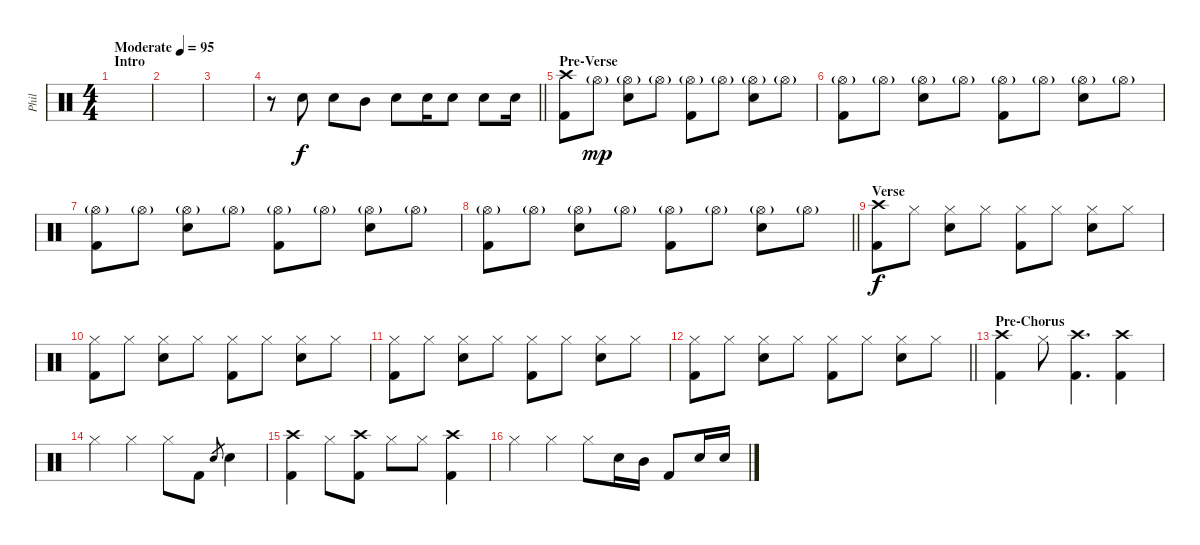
\track ("Phil" "Phil") {instrument percussion}
\staff {score}
\articulation defaults
\ts (4 4)
\section ("" "Intro")
\tempo (95 "Moderate")
\clef neutral
\ks c
|
|
|
\barLineRight lightlight
r.8 "Snare (hit) 2".8 "Snare (hit) 2".8 "Mid Tom (hit)".8 "Snare (hit) 2".8 "Snare (hit) 2".16 "Snare (hit) 2".8 "Snare (hit) 2".8 "Snare (hit) 2".16 |
\section ("" "Pre-Verse")
("Crash high (hit)" "Kick (hit) 2").8 "Hi-Hat (open)"{g}.8{dy mp} ("Hi-Hat (open)"{g} "Snare (hit) 2").8 "Hi-Hat (open)"{g}.8 ("Hi-Hat (open)"{g} "Kick (hit) 2").8 "Hi-Hat (open)"{g}.8 ("Hi-Hat (open)"{g} "Snare (hit) 2").8 "Hi-Hat (open)"{g}.8 |
("Hi-Hat (open)"{g} "Kick (hit) 2").8 "Hi-Hat (open)"{g}.8 ("Hi-Hat (open)"{g} "Snare (hit) 2").8 "Hi-Hat (open)"{g}.8 ("Hi-Hat (open)"{g} "Kick (hit) 2").8 "Hi-Hat (open)"{g}.8 ("Hi-Hat (open)"{g} "Snare (hit) 2").8 "Hi-Hat (open)"{g}.8 |
("Hi-Hat (open)"{g} "Kick (hit) 2").8 "Hi-Hat (open)"{g}.8 ("Hi-Hat (open)"{g} "Snare (hit) 2").8 "Hi-Hat (open)"{g}.8 ("Hi-Hat (open)"{g} "Kick (hit) 2").8 "Hi-Hat (open)"{g}.8 ("Hi-Hat (open)"{g} "Snare (hit) 2").8 "Hi-Hat (open)"{g}.8 |
\barLineRight lightlight
("Hi-Hat (open)"{g} "Kick (hit) 2").8 "Hi-Hat (open)"{g}.8 ("Hi-Hat (open)"{g} "Snare (hit) 2").8 "Hi-Hat (open)"{g}.8 ("Hi-Hat (open)"{g} "Kick (hit) 2").8 "Hi-Hat (open)"{g}.8 ("Hi-Hat (open)"{g} "Snare (hit) 2").8 "Hi-Hat (open)"{g}.8 |
\section ("" "Verse")
("Crash high (hit)" "Kick (hit) 2").8{dy f} "Hi-Hat (closed)".8 ("Hi-Hat (closed)" "Snare (hit) 2").8 "Hi-Hat (closed)".8 ("Hi-Hat (closed)" "Kick (hit) 2").8 "Hi-Hat (closed)".8 ("Hi-Hat (closed)" "Snare (hit) 2").8 "Hi-Hat (closed)".8 |
("Hi-Hat (closed)" "Kick (hit) 2").8 "Hi-Hat (closed)".8 ("Hi-Hat (closed)" "Snare (hit) 2").8 "Hi-Hat (closed)".8 ("Hi-Hat (closed)" "Kick (hit) 2").8 "Hi-Hat (closed)".8 ("Hi-Hat (closed)" "Snare (hit) 2").8 "Hi-Hat (closed)".8 |
("Hi-Hat (closed)" "Kick (hit) 2").8 "Hi-Hat (closed)".8 ("Hi-Hat (closed)" "Snare (hit) 2").8 "Hi-Hat (closed)".8 ("Hi-Hat (closed)" "Kick (hit) 2").8 "Hi-Hat (closed)".8 ("Hi-Hat (closed)" "Snare (hit) 2").8 "Hi-Hat (closed)".8 |
\barLineRight lightlight
("Hi-Hat (closed)" "Kick (hit) 2").8 "Hi-Hat (closed)".8 ("Hi-Hat (closed)" "Snare (hit) 2").8 "Hi-Hat (closed)".8 ("Hi-Hat (closed)" "Kick (hit) 2").8 "Hi-Hat (closed)".8 ("Hi-Hat (closed)" "Snare (hit) 2").8 "Hi-Hat (closed)".8 |
\section ("" "Pre-Chorus")
("Crash high (hit)" "Kick (hit) 2").4 "Hi-Hat (closed)".8 ("Crash high (hit)" "Kick (hit) 2").4{d} ("Crash high (hit)" "Kick (hit) 2").4 |
"Hi-Hat (closed)".4 "Hi-Hat (closed)".4 "Hi-Hat (closed)".8 "Kick (hit) 2".8 "Snare (hit) 2".8{gr} "Snare (hit) 2".4 |
("Crash high (hit)" "Kick (hit) 2").4 "Hi-Hat (closed)".8 ("Crash high (hit)" "Kick (hit) 2").8 "Hi-Hat (closed)".8 "Hi-Hat (closed)".8 ("Crash high (hit)" "Kick (hit) 2").4 |
"Hi-Hat (closed)".4 "Hi-Hat (closed)".4 "Hi-Hat (closed)".8 "Snare (hit) 2".16 "Mid Tom (hit)".16 "Kick (hit) 2".8 "Snare (hit) 2".16 "Snare (hit) 2".16
